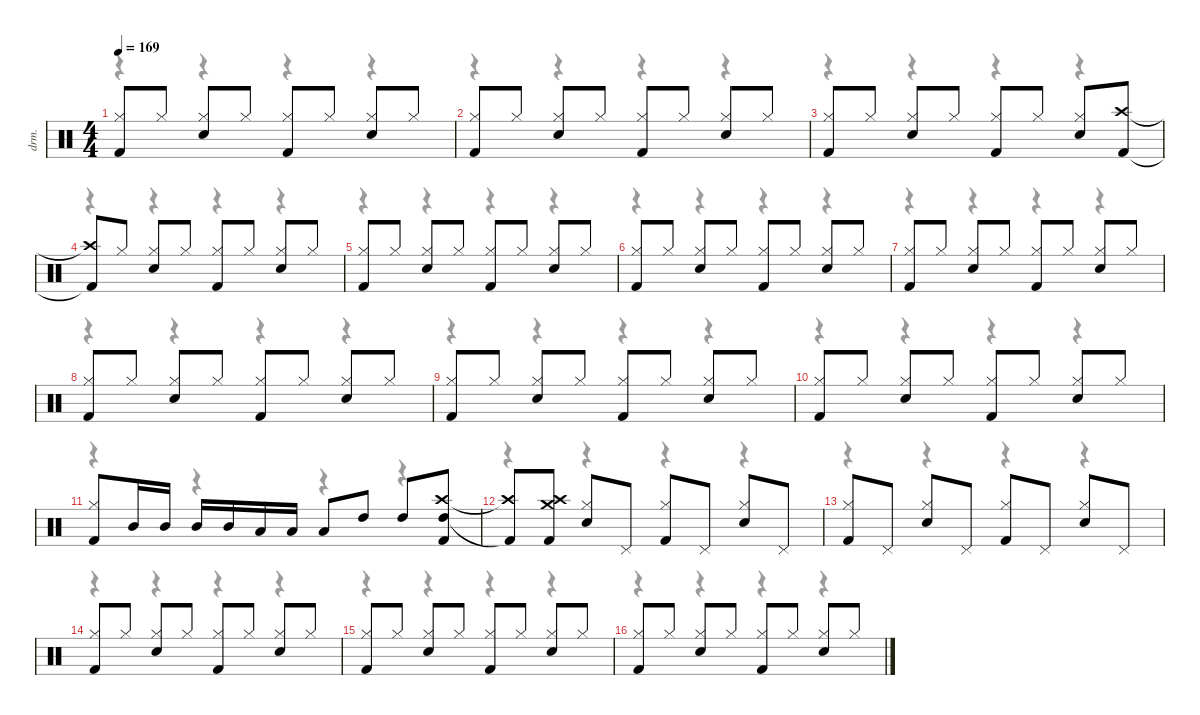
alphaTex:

\defaultSystemsLayout 4
\hideDynamics
\bracketExtendMode nobrackets
\otherSystemsTrackNameOrientation horizontal
\track ("Drums" "drm.") {instrument percussion}
\staff {score}
\articulation defaults
\voice
\ts (4 4)
\tempo 169
\clef neutral
\ks c
("Hi-Hat (closed)" "Kick (hit) 2").8{dy f} "Hi-Hat (closed)".8 ("Hi-Hat (closed)" "Snare (hit) 2").8 "Hi-Hat (closed)".8 ("Hi-Hat (closed)" "Kick (hit) 2").8 "Hi-Hat (closed)".8 ("Hi-Hat (closed)" "Snare (hit) 2").8 "Hi-Hat (closed)".8 |
("Hi-Hat (closed)" "Kick (hit) 2").8 "Hi-Hat (closed)".8 ("Hi-Hat (closed)" "Snare (hit) 2").8 "Hi-Hat (closed)".8 ("Hi-Hat (closed)" "Kick (hit) 2").8 "Hi-Hat (closed)".8 ("Hi-Hat (closed)" "Snare (hit) 2").8 "Hi-Hat (closed)".8 |
("Hi-Hat (closed)" "Kick (hit) 2").8 "Hi-Hat (closed)".8 ("Hi-Hat (closed)" "Snare (hit) 2").8 "Hi-Hat (closed)".8 ("Hi-Hat (closed)" "Kick (hit) 2").8 "Hi-Hat (closed)".8 ("Hi-Hat (closed)" "Snare (hit) 2").8 ("Crash high (hit)" "Kick (hit) 2").8 |
("Crash high (hit)"{t} "Kick (hit) 2"{t}).8 "Hi-Hat (closed)".8 ("Hi-Hat (closed)" "Snare (hit) 2").8 "Hi-Hat (closed)".8 ("Hi-Hat (closed)" "Kick (hit) 2").8 "Hi-Hat (closed)".8 ("Hi-Hat (closed)" "Snare (hit) 2").8 "Hi-Hat (closed)".8 |
("Hi-Hat (closed)" "Kick (hit) 2").8 "Hi-Hat (closed)".8 ("Hi-Hat (closed)" "Snare (hit) 2").8 "Hi-Hat (closed)".8 ("Hi-Hat (closed)" "Kick (hit) 2").8 "Hi-Hat (closed)".8 ("Hi-Hat (closed)" "Snare (hit) 2").8 "Hi-Hat (closed)".8 |
("Hi-Hat (closed)" "Kick (hit) 2").8 "Hi-Hat (closed)".8 ("Hi-Hat (closed)" "Snare (hit) 2").8 "Hi-Hat (closed)".8 ("Hi-Hat (closed)" "Kick (hit) 2").8 "Hi-Hat (closed)".8 ("Hi-Hat (closed)" "Snare (hit) 2").8 "Hi-Hat (closed)".8 |
("Hi-Hat (closed)" "Kick (hit) 2").8 "Hi-Hat (closed)".8 ("Hi-Hat (closed)" "Snare (hit) 2").8 "Hi-Hat (closed)".8 ("Hi-Hat (closed)" "Kick (hit) 2").8 "Hi-Hat (closed)".8 ("Hi-Hat (closed)" "Snare (hit) 2").8 "Hi-Hat (closed)".8 |
("Hi-Hat (closed)" "Kick (hit) 2").8 "Hi-Hat (closed)".8 ("Hi-Hat (closed)" "Snare (hit) 2").8 "Hi-Hat (closed)".8 ("Hi-Hat (closed)" "Kick (hit) 2").8 "Hi-Hat (closed)".8 ("Hi-Hat (closed)" "Snare (hit) 2").8 "Hi-Hat (closed)".8 |
("Hi-Hat (closed)" "Kick (hit) 2").8 "Hi-Hat (closed)".8 ("Hi-Hat (closed)" "Snare (hit) 2").8 "Hi-Hat (closed)".8 ("Hi-Hat (closed)" "Kick (hit) 2").8 "Hi-Hat (closed)".8 ("Hi-Hat (closed)" "Snare (hit) 2").8 "Hi-Hat (closed)".8 |
("Hi-Hat (closed)" "Kick (hit) 2").8 "Hi-Hat (closed)".8 ("Hi-Hat (closed)" "Snare (hit) 2").8 "Hi-Hat (closed)".8 ("Hi-Hat (closed)" "Kick (hit) 2").8 "Hi-Hat (closed)".8 ("Hi-Hat (closed)" "Snare (hit) 2").8 "Hi-Hat (closed)".8 |
("Hi-Hat (closed)" "Kick (hit) 2").8 "Mid Tom (hit)".16 "Mid Tom (hit)".16 "Mid Tom (hit)".16 "Mid Tom (hit)".16 "Low Tom (hit)".16 "Low Tom (hit)".16 "Low Tom (hit)".8 "High Tom (hit)".8 "High Tom (hit)".8 ("Crash high (hit)" "High Tom (hit)" "Kick (hit) 2").8{dy ff} |
("Crash high (hit)"{t} "Kick (hit) 2"{t}).8{dy f} ("Crash high (hit)" "Crash medium (hit)" "Kick (hit) 2").8{dy ff} ("Hi-Hat (closed)" "Snare (hit) 2").8{dy f} "Pedal Hi-Hat (hit)".8 ("Hi-Hat (closed)" "Kick (hit) 2").8 "Pedal Hi-Hat (hit)".8 ("Hi-Hat (closed)" "Snare (hit) 2").8 "Pedal Hi-Hat (hit)".8 |
("Hi-Hat (closed)" "Kick (hit) 2").8 "Pedal Hi-Hat (hit)".8 ("Hi-Hat (closed)" "Snare (hit) 2").8 "Pedal Hi-Hat (hit)".8 ("Hi-Hat (closed)" "Kick (hit) 2").8 "Pedal Hi-Hat (hit)".8 ("Hi-Hat (closed)" "Snare (hit) 2").8 "Pedal Hi-Hat (hit)".8 |
("Hi-Hat (closed)" "Kick (hit) 2").8 "Hi-Hat (closed)".8 ("Hi-Hat (closed)" "Snare (hit) 2").8 "Hi-Hat (closed)".8 ("Hi-Hat (closed)" "Kick (hit) 2").8 "Hi-Hat (closed)".8 ("Hi-Hat (closed)" "Snare (hit) 2").8 "Hi-Hat (closed)".8 |
("Hi-Hat (closed)" "Kick (hit) 2").8 "Hi-Hat (closed)".8 ("Hi-Hat (closed)" "Snare (hit) 2").8 "Hi-Hat (closed)".8 ("Hi-Hat (closed)" "Kick (hit) 2").8 "Hi-Hat (closed)".8 ("Hi-Hat (closed)" "Snare (hit) 2").8 "Hi-Hat (closed)".8 |
("Hi-Hat (closed)" "Kick (hit) 2").8 "Hi-Hat (closed)".8 ("Hi-Hat (closed)" "Snare (hit) 2").8 "Hi-Hat (closed)".8 ("Hi-Hat (closed)" "Kick (hit) 2").8 "Hi-Hat (closed)".8 ("Hi-Hat (closed)" "Snare (hit) 2").8 "Hi-Hat (closed)".8
\voice
\clef neutral
\ottava regular
\simile none
\ks c
r.4{dy mf} r.4 r.4 r.4 |
r.4 r.4 r.4 r.4 |
r.4 r.4 r.4 r.4 |
r.4 r.4 r.4 r.4 |
r.4 r.4 r.4 r.4 |
r.4 r.4 r.4 r.4 |
r.4 r.4 r.4 r.4 |
r.4 r.4 r.4 r.4 |
r.4 r.4 r.4 r.4 |
r.4 r.4 r.4 r.4 |
r.4 r.4 r.4 r.4 |
r.4 r.4 r.4 r.4 |
r.4 r.4 r.4 r.4 |
r.4 r.4 r.4 r.4 |
r.4 r.4 r.4 r.4 |
r.4 r.4 r.4 r.4
